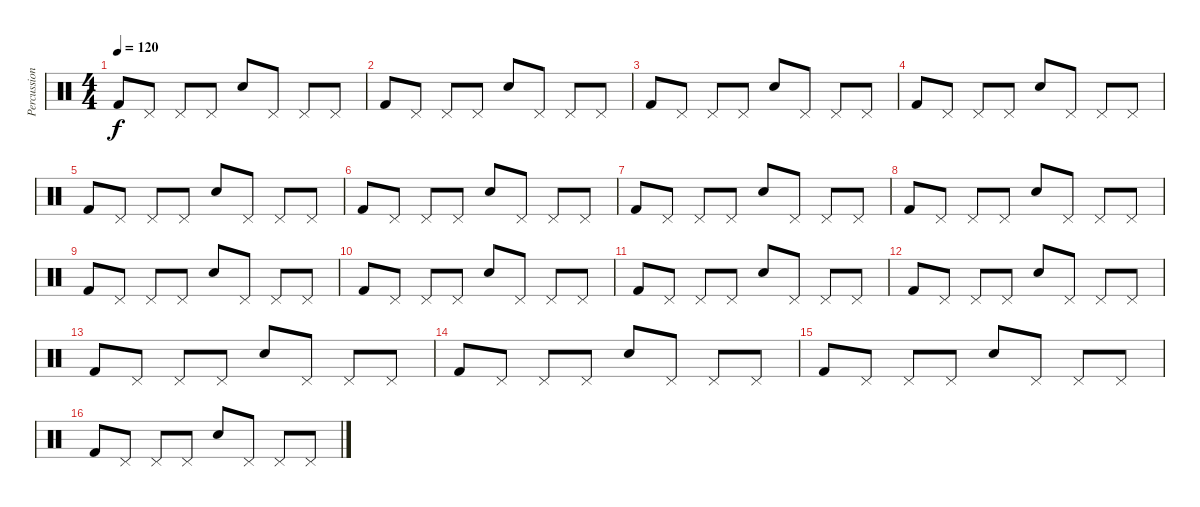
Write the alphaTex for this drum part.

\track ("Percussion" "Percussion") {instrument percussion}
\staff {score}
\articulation defaults
\ts (4 4)
\tempo 120
\clef neutral
\ks c "Kick (hit) 2".8{dy f} "Pedal Hi-Hat (hit)".8 "Pedal Hi-Hat (hit)".8 "Pedal Hi-Hat (hit)".8 "Electric Snare (hit)".8 "Pedal Hi-Hat (hit)".8 "Pedal Hi-Hat (hit)".8 "Pedal Hi-Hat (hit)".8
|
"Kick (hit) 2".8 "Pedal Hi-Hat (hit)".8 "Pedal Hi-Hat (hit)".8 "Pedal Hi-Hat (hit)".8 "Electric Snare (hit)".8 "Pedal Hi-Hat (hit)".8 "Pedal Hi-Hat (hit)".8 "Pedal Hi-Hat (hit)".8 |
"Kick (hit) 2".8 "Pedal Hi-Hat (hit)".8 "Pedal Hi-Hat (hit)".8 "Pedal Hi-Hat (hit)".8 "Electric Snare (hit)".8 "Pedal Hi-Hat (hit)".8 "Pedal Hi-Hat (hit)".8 "Pedal Hi-Hat (hit)".8 |
"Kick (hit) 2".8 "Pedal Hi-Hat (hit)".8 "Pedal Hi-Hat (hit)".8 "Pedal Hi-Hat (hit)".8 "Electric Snare (hit)".8 "Pedal Hi-Hat (hit)".8 "Pedal Hi-Hat (hit)".8 "Pedal Hi-Hat (hit)".8 |
"Kick (hit) 2".8 "Pedal Hi-Hat (hit)".8 "Pedal Hi-Hat (hit)".8 "Pedal Hi-Hat (hit)".8 "Electric Snare (hit)".8 "Pedal Hi-Hat (hit)".8 "Pedal Hi-Hat (hit)".8 "Pedal Hi-Hat (hit)".8 |
"Kick (hit) 2".8 "Pedal Hi-Hat (hit)".8 "Pedal Hi-Hat (hit)".8 "Pedal Hi-Hat (hit)".8 "Electric Snare (hit)".8 "Pedal Hi-Hat (hit)".8 "Pedal Hi-Hat (hit)".8 "Pedal Hi-Hat (hit)".8 |
"Kick (hit) 2".8 "Pedal Hi-Hat (hit)".8 "Pedal Hi-Hat (hit)".8 "Pedal Hi-Hat (hit)".8 "Electric Snare (hit)".8 "Pedal Hi-Hat (hit)".8 "Pedal Hi-Hat (hit)".8 "Pedal Hi-Hat (hit)".8 |
"Kick (hit) 2".8 "Pedal Hi-Hat (hit)".8 "Pedal Hi-Hat (hit)".8 "Pedal Hi-Hat (hit)".8 "Electric Snare (hit)".8 "Pedal Hi-Hat (hit)".8 "Pedal Hi-Hat (hit)".8 "Pedal Hi-Hat (hit)".8 |
"Kick (hit) 2".8 "Pedal Hi-Hat (hit)".8 "Pedal Hi-Hat (hit)".8 "Pedal Hi-Hat (hit)".8 "Electric Snare (hit)".8 "Pedal Hi-Hat (hit)".8 "Pedal Hi-Hat (hit)".8 "Pedal Hi-Hat (hit)".8 |
"Kick (hit) 2".8 "Pedal Hi-Hat (hit)".8 "Pedal Hi-Hat (hit)".8 "Pedal Hi-Hat (hit)".8 "Electric Snare (hit)".8 "Pedal Hi-Hat (hit)".8 "Pedal Hi-Hat (hit)".8 "Pedal Hi-Hat (hit)".8 |
"Kick (hit) 2".8 "Pedal Hi-Hat (hit)".8 "Pedal Hi-Hat (hit)".8 "Pedal Hi-Hat (hit)".8 "Electric Snare (hit)".8 "Pedal Hi-Hat (hit)".8 "Pedal Hi-Hat (hit)".8 "Pedal Hi-Hat (hit)".8 |
"Kick (hit) 2".8 "Pedal Hi-Hat (hit)".8 "Pedal Hi-Hat (hit)".8 "Pedal Hi-Hat (hit)".8 "Electric Snare (hit)".8 "Pedal Hi-Hat (hit)".8 "Pedal Hi-Hat (hit)".8 "Pedal Hi-Hat (hit)".8 |
"Kick (hit) 2".8 "Pedal Hi-Hat (hit)".8 "Pedal Hi-Hat (hit)".8 "Pedal Hi-Hat (hit)".8 "Electric Snare (hit)".8 "Pedal Hi-Hat (hit)".8 "Pedal Hi-Hat (hit)".8 "Pedal Hi-Hat (hit)".8 |
"Kick (hit) 2".8 "Pedal Hi-Hat (hit)".8 "Pedal Hi-Hat (hit)".8 "Pedal Hi-Hat (hit)".8 "Electric Snare (hit)".8 "Pedal Hi-Hat (hit)".8 "Pedal Hi-Hat (hit)".8 "Pedal Hi-Hat (hit)".8 |
"Kick (hit) 2".8 "Pedal Hi-Hat (hit)".8 "Pedal Hi-Hat (hit)".8 "Pedal Hi-Hat (hit)".8 "Electric Snare (hit)".8 "Pedal Hi-Hat (hit)".8 "Pedal Hi-Hat (hit)".8 "Pedal Hi-Hat (hit)".8 |
"Kick (hit) 2".8 "Pedal Hi-Hat (hit)".8 "Pedal Hi-Hat (hit)".8 "Pedal Hi-Hat (hit)".8 "Electric Snare (hit)".8 "Pedal Hi-Hat (hit)".8 "Pedal Hi-Hat (hit)".8 "Pedal Hi-Hat (hit)".8
